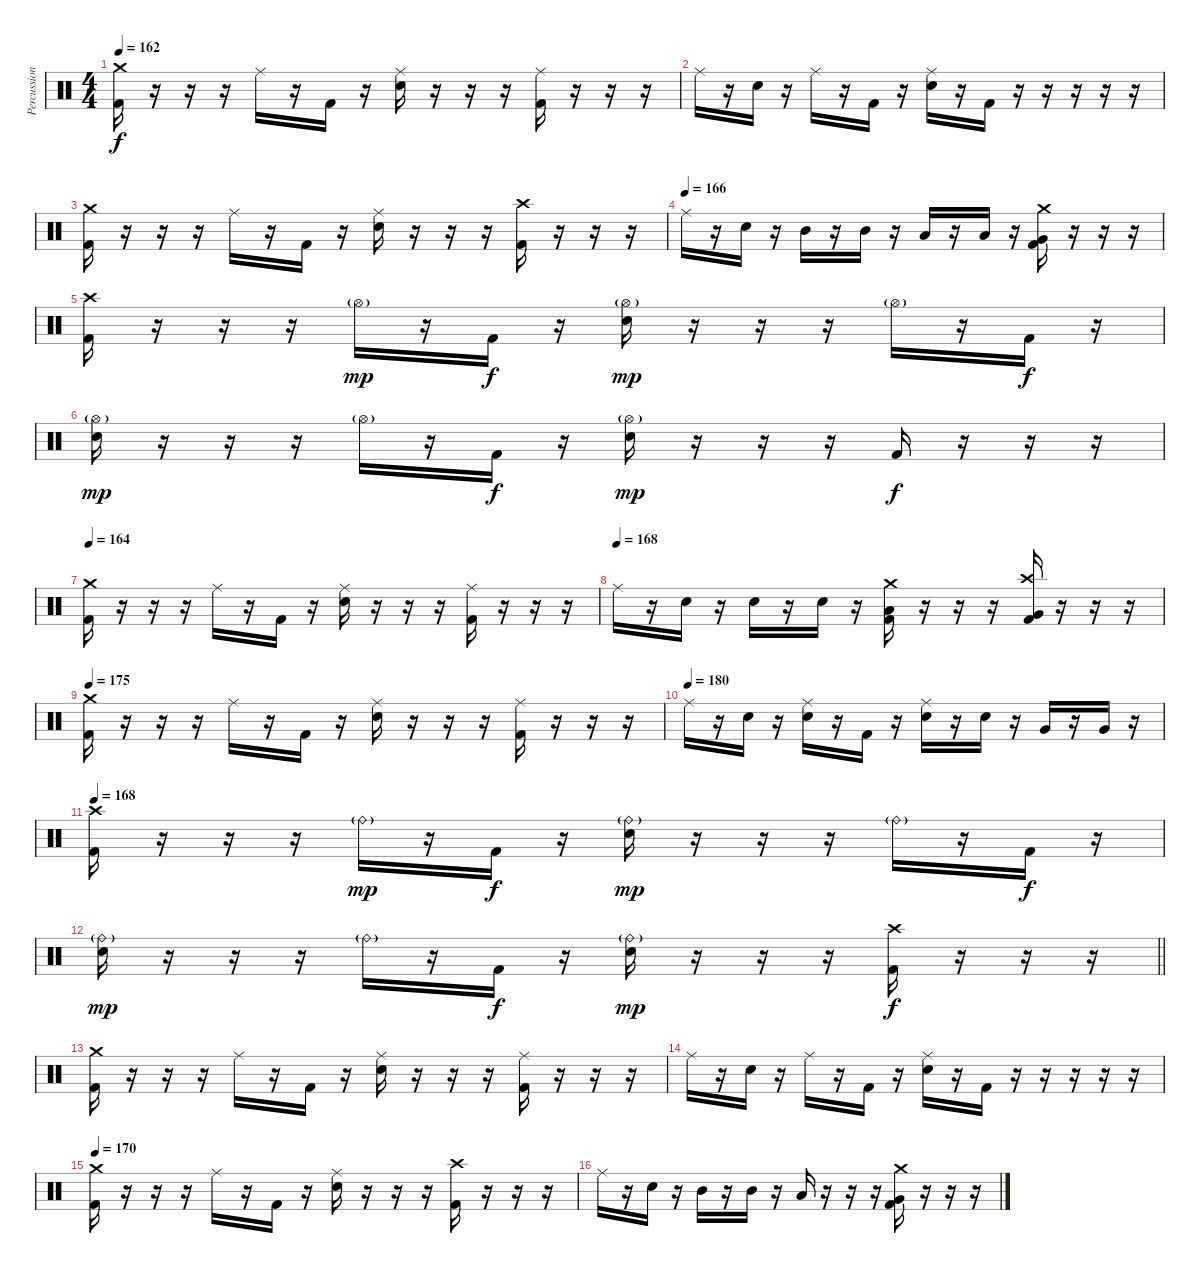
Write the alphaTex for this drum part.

\track ("Percussion" "Percussion") {instrument percussion}
\staff {score}
\articulation defaults
\ts (4 4)
\section ("" "")
\tempo 162
\clef neutral
\ks c
("Crash medium (hit)" "Kick (hit) 2").16{dy f} r.16 r.16 r.16 "Ride (middle)".16 r.16 "Kick (hit) 2".16 r.16 ("Ride (middle)" "Electric Snare (hit)").16 r.16 r.16 r.16 ("Ride (middle)" "Kick (hit) 2").16 r.16 r.16 r.16 |
"Ride (middle)".16 r.16 "Electric Snare (hit)".16 r.16 "Ride (middle)".16 r.16 "Kick (hit) 2".16 r.16 ("Ride (middle)" "Electric Snare (hit)").16 r.16 "Kick (hit) 2".16 r.16 r.16 r.16 r.16 r.16 |
("Crash medium (hit)" "Kick (hit) 2").16 r.16 r.16 r.16 "Ride (middle)".16 r.16 "Kick (hit) 2".16 r.16 ("Ride (middle)" "Electric Snare (hit)").16 r.16 r.16 r.16 ("Crash high (hit)" "Kick (hit) 2").16 r.16 r.16 r.16 |
\tempo (166)
"Ride (middle)".16 r.16 "Electric Snare (hit)".16 r.16 "Mid Tom (hit)".16 r.16 "Mid Tom (hit)".16 r.16 "Low Tom (hit)".16 r.16 "Low Tom (hit)".16 r.16 ("Crash medium (hit)" "Very Low Tom (hit)" "Kick (hit) 2").16 r.16 r.16 r.16 |
("Crash high (hit)" "Kick (hit) 2").16 r.16 r.16 r.16 "Hi-Hat (open)"{g}.16{dy mp} r.16 "Kick (hit) 2".16{dy f} r.16 ("Hi-Hat (open)"{g} "Electric Snare (hit)").16{dy mp} r.16 r.16 r.16 "Hi-Hat (open)"{g}.16 r.16 "Kick (hit) 2".16{dy f} r.16 |
("Hi-Hat (open)"{g} "Electric Snare (hit)").16{dy mp} r.16 r.16 r.16 "Hi-Hat (open)"{g}.16 r.16 "Kick (hit) 2".16{dy f} r.16 ("Hi-Hat (open)"{g} "Electric Snare (hit)").16{dy mp} r.16 r.16 r.16 "Kick (hit) 2".16{dy f} r.16 r.16 r.16 |
\tempo 164
("Crash medium (hit)" "Kick (hit) 2").16 r.16 r.16 r.16 "Ride (middle)".16 r.16 "Kick (hit) 2".16 r.16 ("Ride (middle)" "Electric Snare (hit)").16 r.16 r.16 r.16 ("Ride (middle)" "Kick (hit) 2").16 r.16 r.16 r.16 |
\tempo (168)
"Ride (middle)".16 r.16 "Electric Snare (hit)".16 r.16 "Electric Snare (hit)".16 r.16 "Electric Snare (hit)".16 r.16 ("Crash medium (hit)" "Low Tom (hit)" "Kick (hit) 2").16 r.16 r.16 r.16 ("Crash high (hit)" "Very Low Tom (hit)" "Kick (hit) 2").16 r.16 r.16 r.16 |
\tempo 175
("Crash medium (hit)" "Kick (hit) 2").16 r.16 r.16 r.16 "Ride (middle)".16 r.16 "Kick (hit) 2".16 r.16 ("Ride (middle)" "Electric Snare (hit)").16 r.16 r.16 r.16 ("Ride (middle)" "Kick (hit) 2").16 r.16 r.16 r.16 |
\tempo (180)
"Ride (middle)".16 r.16 "Electric Snare (hit)".16 r.16 ("Ride (middle)" "Electric Snare (hit)").16 r.16 "Kick (hit) 2".16 r.16 ("Ride (middle)" "Electric Snare (hit)").16 r.16 "Electric Snare (hit)".16 r.16 "Very Low Tom (hit)".16 r.16 "Very Low Tom (hit)".16 r.16 |
\tempo 168
("Crash high (hit)" "Kick (hit) 2").16 r.16 r.16 r.16 "Ride (bell)"{g}.16{dy mp} r.16 "Kick (hit) 2".16{dy f} r.16 ("Ride (bell)"{g} "Electric Snare (hit)").16{dy mp} r.16 r.16 r.16 "Ride (bell)"{g}.16 r.16 "Kick (hit) 2".16{dy f} r.16 |
\barLineRight lightlight
("Ride (bell)"{g} "Electric Snare (hit)").16{dy mp} r.16 r.16 r.16 "Ride (bell)"{g}.16 r.16 "Kick (hit) 2".16{dy f} r.16 ("Ride (bell)"{g} "Electric Snare (hit)").16{dy mp} r.16 r.16 r.16 ("Crash high (hit)" "Kick (hit) 2").16{dy f} r.16 r.16 r.16 |
\section ("" "")
("Crash medium (hit)" "Kick (hit) 2").16 r.16 r.16 r.16 "Ride (middle)".16 r.16 "Kick (hit) 2".16 r.16 ("Ride (middle)" "Electric Snare (hit)").16 r.16 r.16 r.16 ("Ride (middle)" "Kick (hit) 2").16 r.16 r.16 r.16 |
"Ride (middle)".16 r.16 "Electric Snare (hit)".16 r.16 "Ride (middle)".16 r.16 "Kick (hit) 2".16 r.16 ("Ride (middle)" "Electric Snare (hit)").16 r.16 "Kick (hit) 2".16 r.16 r.16 r.16 r.16 r.16 |
\tempo 170
("Crash medium (hit)" "Kick (hit) 2").16 r.16 r.16 r.16 "Ride (middle)".16 r.16 "Kick (hit) 2".16 r.16 ("Ride (middle)" "Electric Snare (hit)").16 r.16 r.16 r.16 ("Crash high (hit)" "Kick (hit) 2").16 r.16 r.16 r.16 |
"Ride (middle)".16 r.16 "Electric Snare (hit)".16 r.16 "Mid Tom (hit)".16 r.16 "Mid Tom (hit)".16 r.16 "Low Tom (hit)".16 r.16 r.16 r.16 ("Crash medium (hit)" "Very Low Tom (hit)" "Kick (hit) 2").16 r.16 r.16 r.16
